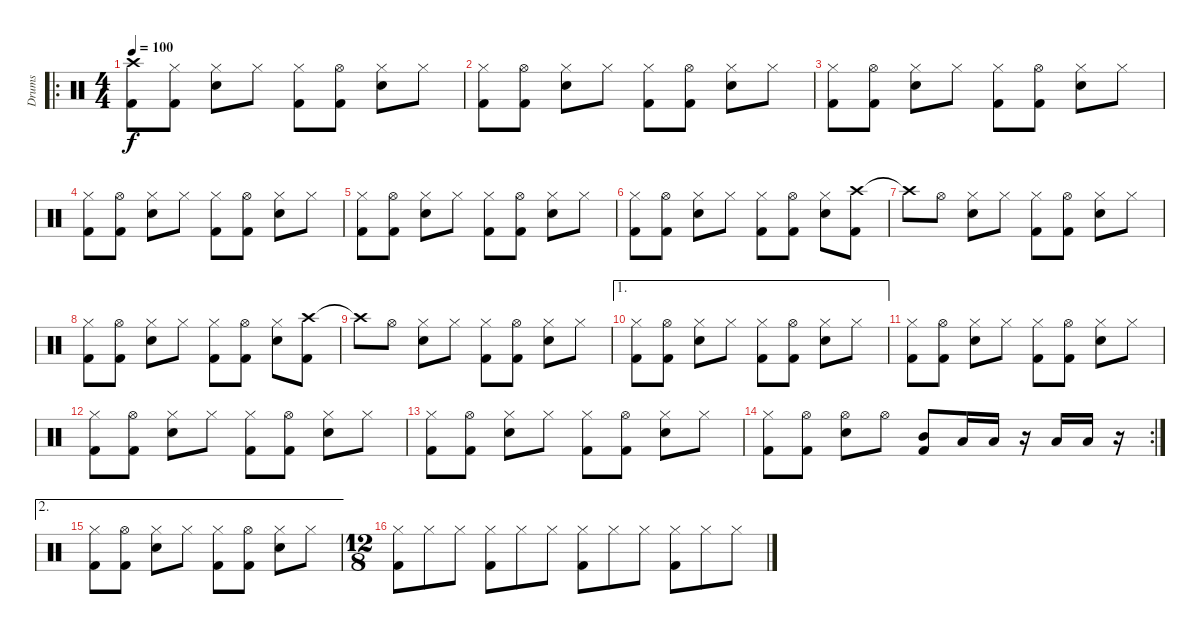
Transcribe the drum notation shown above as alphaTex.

\track ("Drums" "Drums") {instrument percussion}
\staff {score}
\articulation defaults
\ro
\ts (4 4)
\tempo 100
\clef neutral
\ks c
("Crash high (hit)" "Kick (hit) 2").8{dy f} ("Hi-Hat (closed)" "Kick (hit) 2").8 ("Hi-Hat (closed)" "Snare (hit) 2").8 "Hi-Hat (closed)".8 ("Hi-Hat (closed)" "Kick (hit) 2").8 ("Hi-Hat (open)" "Kick (hit) 2").8 ("Hi-Hat (closed)" "Snare (hit) 2").8 "Hi-Hat (closed)".8 |
("Hi-Hat (closed)" "Kick (hit) 2").8 ("Hi-Hat (open)" "Kick (hit) 2").8 ("Hi-Hat (closed)" "Snare (hit) 2").8 "Hi-Hat (closed)".8 ("Hi-Hat (closed)" "Kick (hit) 2").8 ("Hi-Hat (open)" "Kick (hit) 2").8 ("Hi-Hat (closed)" "Snare (hit) 2").8 "Hi-Hat (closed)".8 |
("Hi-Hat (closed)" "Kick (hit) 2").8 ("Hi-Hat (open)" "Kick (hit) 2").8 ("Hi-Hat (closed)" "Snare (hit) 2").8 "Hi-Hat (closed)".8 ("Hi-Hat (closed)" "Kick (hit) 2").8 ("Hi-Hat (open)" "Kick (hit) 2").8 ("Hi-Hat (closed)" "Snare (hit) 2").8 "Hi-Hat (closed)".8 |
("Hi-Hat (closed)" "Kick (hit) 2").8 ("Hi-Hat (open)" "Kick (hit) 2").8 ("Hi-Hat (closed)" "Snare (hit) 2").8 "Hi-Hat (closed)".8 ("Hi-Hat (closed)" "Kick (hit) 2").8 ("Hi-Hat (open)" "Kick (hit) 2").8 ("Hi-Hat (closed)" "Snare (hit) 2").8 "Hi-Hat (closed)".8 |
("Hi-Hat (closed)" "Kick (hit) 2").8 ("Hi-Hat (open)" "Kick (hit) 2").8 ("Hi-Hat (closed)" "Snare (hit) 2").8 "Hi-Hat (closed)".8 ("Hi-Hat (closed)" "Kick (hit) 2").8 ("Hi-Hat (open)" "Kick (hit) 2").8 ("Hi-Hat (closed)" "Snare (hit) 2").8 "Hi-Hat (closed)".8 |
("Hi-Hat (closed)" "Kick (hit) 2").8 ("Hi-Hat (open)" "Kick (hit) 2").8 ("Hi-Hat (closed)" "Snare (hit) 2").8 "Hi-Hat (closed)".8 ("Hi-Hat (closed)" "Kick (hit) 2").8 ("Hi-Hat (open)" "Kick (hit) 2").8 ("Hi-Hat (closed)" "Snare (hit) 2").8 ("Crash high (hit)" "Kick (hit) 2").8 |
"Crash high (hit)"{t}.8 "Hi-Hat (open)".8 ("Hi-Hat (closed)" "Snare (hit) 2").8 "Hi-Hat (closed)".8 ("Hi-Hat (closed)" "Kick (hit) 2").8 ("Hi-Hat (open)" "Kick (hit) 2").8 ("Hi-Hat (closed)" "Snare (hit) 2").8 "Hi-Hat (closed)".8 |
("Hi-Hat (closed)" "Kick (hit) 2").8 ("Hi-Hat (open)" "Kick (hit) 2").8 ("Hi-Hat (closed)" "Snare (hit) 2").8 "Hi-Hat (closed)".8 ("Hi-Hat (closed)" "Kick (hit) 2").8 ("Hi-Hat (open)" "Kick (hit) 2").8 ("Hi-Hat (closed)" "Snare (hit) 2").8 ("Crash high (hit)" "Kick (hit) 2").8 |
"Crash high (hit)"{t}.8 "Hi-Hat (open)".8 ("Hi-Hat (closed)" "Snare (hit) 2").8 "Hi-Hat (closed)".8 ("Hi-Hat (closed)" "Kick (hit) 2").8 ("Hi-Hat (open)" "Kick (hit) 2").8 ("Hi-Hat (closed)" "Snare (hit) 2").8 "Hi-Hat (closed)".8 |
\ae 1
("Hi-Hat (closed)" "Kick (hit) 2").8 ("Hi-Hat (open)" "Kick (hit) 2").8 ("Hi-Hat (closed)" "Snare (hit) 2").8 "Hi-Hat (closed)".8 ("Hi-Hat (closed)" "Kick (hit) 2").8 ("Hi-Hat (open)" "Kick (hit) 2").8 ("Hi-Hat (closed)" "Snare (hit) 2").8 "Hi-Hat (closed)".8 |
("Hi-Hat (closed)" "Kick (hit) 2").8 ("Hi-Hat (open)" "Kick (hit) 2").8 ("Hi-Hat (closed)" "Snare (hit) 2").8 "Hi-Hat (closed)".8 ("Hi-Hat (closed)" "Kick (hit) 2").8 ("Hi-Hat (open)" "Kick (hit) 2").8 ("Hi-Hat (closed)" "Snare (hit) 2").8 "Hi-Hat (closed)".8 |
("Hi-Hat (closed)" "Kick (hit) 2").8 ("Hi-Hat (open)" "Kick (hit) 2").8 ("Hi-Hat (closed)" "Snare (hit) 2").8 "Hi-Hat (closed)".8 ("Hi-Hat (closed)" "Kick (hit) 2").8 ("Hi-Hat (open)" "Kick (hit) 2").8 ("Hi-Hat (closed)" "Snare (hit) 2").8 "Hi-Hat (closed)".8 |
("Hi-Hat (closed)" "Kick (hit) 2").8 ("Hi-Hat (open)" "Kick (hit) 2").8 ("Hi-Hat (closed)" "Snare (hit) 2").8 "Hi-Hat (closed)".8 ("Hi-Hat (closed)" "Kick (hit) 2").8 ("Hi-Hat (open)" "Kick (hit) 2").8 ("Hi-Hat (closed)" "Snare (hit) 2").8 "Hi-Hat (closed)".8 |
\rc 2
("Hi-Hat (closed)" "Kick (hit) 2").8 ("Hi-Hat (open)" "Kick (hit) 2").8 ("Hi-Hat (open)" "Snare (hit) 2").8 "Hi-Hat (open)".8 ("Mid Tom (hit)" "Kick (hit) 2").8 "Low Tom (hit)".16 "Low Tom (hit)".16 r.16 "Low Tom (hit)".16 "Low Tom (hit)".16 r.16 |
\ae 2
("Hi-Hat (closed)" "Kick (hit) 2").8 ("Hi-Hat (open)" "Kick (hit) 2").8 ("Hi-Hat (closed)" "Snare (hit) 2").8 "Hi-Hat (closed)".8 ("Hi-Hat (closed)" "Kick (hit) 2").8 ("Hi-Hat (open)" "Kick (hit) 2").8 ("Hi-Hat (closed)" "Snare (hit) 2").8 "Hi-Hat (closed)".8 |
\ts (12 8)
("Hi-Hat (closed)" "Kick (hit) 2").8 "Hi-Hat (closed)".8 "Hi-Hat (closed)".8 ("Hi-Hat (closed)" "Kick (hit) 2").8 "Hi-Hat (closed)".8 "Hi-Hat (closed)".8 ("Hi-Hat (closed)" "Kick (hit) 2").8 "Hi-Hat (closed)".8 "Hi-Hat (closed)".8 ("Hi-Hat (closed)" "Kick (hit) 2").8 "Hi-Hat (closed)".8 "Hi-Hat (closed)".8
